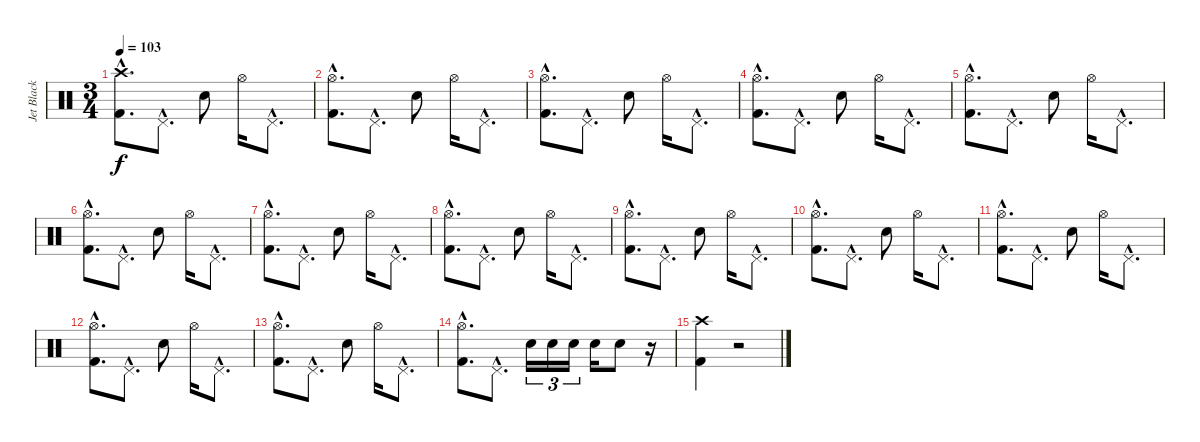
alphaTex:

\track ("Jet Black - Drums" "Jet Black ") {instrument percussion}
\staff {score}
\articulation defaults
\ts (3 4)
\tempo 103
\clef neutral
\ks c
("Crash high (hit)"{hac} "Kick (hit) 2"{hac}).8{d dy f} "Pedal Hi-Hat (hit)"{hac}.8{d} "Snare (hit) 2".8 "Hi-Hat (open)".16 "Pedal Hi-Hat (hit)"{hac}.8{d} |
("Hi-Hat (open)"{hac} "Kick (hit) 2"{hac}).8{d} "Pedal Hi-Hat (hit)"{hac}.8{d} "Snare (hit) 2".8 "Hi-Hat (open)".16 "Pedal Hi-Hat (hit)"{hac}.8{d} |
("Hi-Hat (open)"{hac} "Kick (hit) 2"{hac}).8{d} "Pedal Hi-Hat (hit)"{hac}.8{d} "Snare (hit) 2".8 "Hi-Hat (open)".16 "Pedal Hi-Hat (hit)"{hac}.8{d} |
("Hi-Hat (open)"{hac} "Kick (hit) 2"{hac}).8{d} "Pedal Hi-Hat (hit)"{hac}.8{d} "Snare (hit) 2".8 "Hi-Hat (open)".16 "Pedal Hi-Hat (hit)"{hac}.8{d} |
("Hi-Hat (open)"{hac} "Kick (hit) 2"{hac}).8{d} "Pedal Hi-Hat (hit)"{hac}.8{d} "Snare (hit) 2".8 "Hi-Hat (open)".16 "Pedal Hi-Hat (hit)"{hac}.8{d} |
("Hi-Hat (open)"{hac} "Kick (hit) 2"{hac}).8{d} "Pedal Hi-Hat (hit)"{hac}.8{d} "Snare (hit) 2".8 "Hi-Hat (open)".16 "Pedal Hi-Hat (hit)"{hac}.8{d} |
("Hi-Hat (open)"{hac} "Kick (hit) 2"{hac}).8{d} "Pedal Hi-Hat (hit)"{hac}.8{d} "Snare (hit) 2".8 "Hi-Hat (open)".16 "Pedal Hi-Hat (hit)"{hac}.8{d} |
("Hi-Hat (open)"{hac} "Kick (hit) 2"{hac}).8{d} "Pedal Hi-Hat (hit)"{hac}.8{d} "Snare (hit) 2".8 "Hi-Hat (open)".16 "Pedal Hi-Hat (hit)"{hac}.8{d} |
("Hi-Hat (open)"{hac} "Kick (hit) 2"{hac}).8{d} "Pedal Hi-Hat (hit)"{hac}.8{d} "Snare (hit) 2".8 "Hi-Hat (open)".16 "Pedal Hi-Hat (hit)"{hac}.8{d} |
("Hi-Hat (open)"{hac} "Kick (hit) 2"{hac}).8{d} "Pedal Hi-Hat (hit)"{hac}.8{d} "Snare (hit) 2".8 "Hi-Hat (open)".16 "Pedal Hi-Hat (hit)"{hac}.8{d} |
("Hi-Hat (open)"{hac} "Kick (hit) 2"{hac}).8{d} "Pedal Hi-Hat (hit)"{hac}.8{d} "Snare (hit) 2".8 "Hi-Hat (open)".16 "Pedal Hi-Hat (hit)"{hac}.8{d} |
("Hi-Hat (open)"{hac} "Kick (hit) 2"{hac}).8{d} "Pedal Hi-Hat (hit)"{hac}.8{d} "Snare (hit) 2".8 "Hi-Hat (open)".16 "Pedal Hi-Hat (hit)"{hac}.8{d} |
("Hi-Hat (open)"{hac} "Kick (hit) 2"{hac}).8{d} "Pedal Hi-Hat (hit)"{hac}.8{d} "Snare (hit) 2".8 "Hi-Hat (open)".16 "Pedal Hi-Hat (hit)"{hac}.8{d} |
("Hi-Hat (open)"{hac} "Kick (hit) 2"{hac}).8{d} "Pedal Hi-Hat (hit)"{hac}.8{d} "Snare (hit) 2".16{tu (3 2)} "Snare (hit) 2".16{tu (3 2)} "Snare (hit) 2".16{tu (3 2)} "Snare (hit) 2".16 "Snare (hit) 2".8 r.16 |
("Crash high (hit)" "Kick (hit) 2").4 r.2
